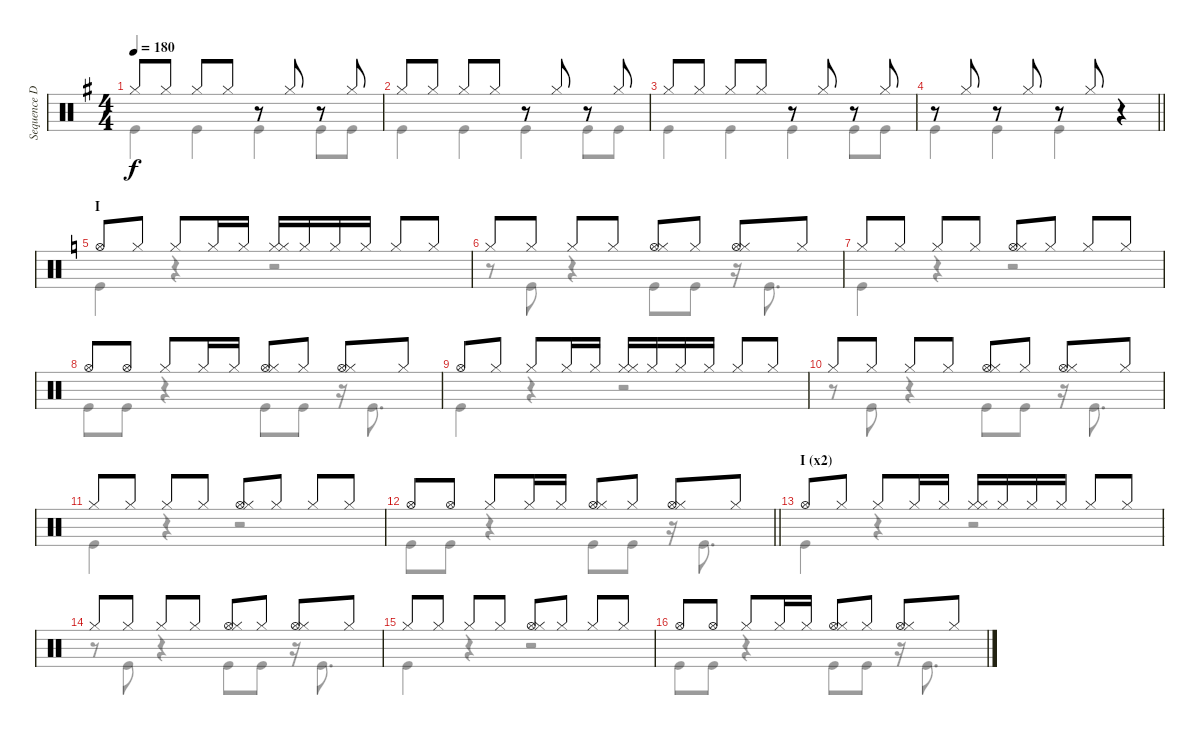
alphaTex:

\track ("Sequence Drums" "Sequence D") {instrument percussion}
\staff {score}
\articulation defaults
\voice
\ts (4 4)
\tempo 180
\clef neutral
\ks g "Hi-Hat (closed)".8{dy f} "Hi-Hat (closed)".8 "Hi-Hat (closed)".8 "Hi-Hat (closed)".8
r.8 "Hi-Hat (closed)".8 r.8 "Hi-Hat (closed)".8 |
"Hi-Hat (closed)".8 "Hi-Hat (closed)".8 "Hi-Hat (closed)".8 "Hi-Hat (closed)".8 r.8 "Hi-Hat (closed)".8 r.8 "Hi-Hat (closed)".8 |
"Hi-Hat (closed)".8 "Hi-Hat (closed)".8 "Hi-Hat (closed)".8 "Hi-Hat (closed)".8 r.8 "Hi-Hat (closed)".8 r.8 "Hi-Hat (closed)".8 |
\barLineRight lightlight
r.8 "Hi-Hat (closed)".8 r.8 "Hi-Hat (closed)".8 r.8 "Hi-Hat (closed)".8 r.4 |
\section ("" "I")
\ks c "Hi-Hat (open)".8 "Hi-Hat (closed)".8 "Hi-Hat (closed)".8 "Hi-Hat (closed)".16 "Hi-Hat (closed)".16
("Hi-Hat (closed)" "Hi-Hat (closed)").16 "Hi-Hat (closed)".16 "Hi-Hat (closed)".16 "Hi-Hat (closed)".16 "Hi-Hat (closed)".8 "Hi-Hat (closed)".8 |
"Hi-Hat (closed)".8 "Hi-Hat (closed)".8 "Hi-Hat (closed)".8 "Hi-Hat (closed)".8 ("Hi-Hat (open)" "Hi-Hat (closed)").8 "Hi-Hat (closed)".8 ("Hi-Hat (open)" "Hi-Hat (closed)").8 "Hi-Hat (closed)".8 |
"Hi-Hat (closed)".8 "Hi-Hat (closed)".8 "Hi-Hat (closed)".8 "Hi-Hat (closed)".8 ("Hi-Hat (open)" "Hi-Hat (closed)").8 "Hi-Hat (closed)".8 "Hi-Hat (closed)".8 "Hi-Hat (closed)".8 |
"Hi-Hat (open)".8 "Hi-Hat (open)".8 "Hi-Hat (closed)".8 "Hi-Hat (closed)".16 "Hi-Hat (closed)".16 ("Hi-Hat (open)" "Hi-Hat (closed)").8 "Hi-Hat (closed)".8 ("Hi-Hat (open)" "Hi-Hat (closed)").8 "Hi-Hat (closed)".8 |
"Hi-Hat (open)".8 "Hi-Hat (closed)".8 "Hi-Hat (closed)".8 "Hi-Hat (closed)".16 "Hi-Hat (closed)".16 ("Hi-Hat (closed)" "Hi-Hat (closed)").16 "Hi-Hat (closed)".16 "Hi-Hat (closed)".16 "Hi-Hat (closed)".16 "Hi-Hat (closed)".8 "Hi-Hat (closed)".8 |
"Hi-Hat (closed)".8 "Hi-Hat (closed)".8 "Hi-Hat (closed)".8 "Hi-Hat (closed)".8 ("Hi-Hat (open)" "Hi-Hat (closed)").8 "Hi-Hat (closed)".8 ("Hi-Hat (open)" "Hi-Hat (closed)").8 "Hi-Hat (closed)".8 |
"Hi-Hat (closed)".8 "Hi-Hat (closed)".8 "Hi-Hat (closed)".8 "Hi-Hat (closed)".8 ("Hi-Hat (open)" "Hi-Hat (closed)").8 "Hi-Hat (closed)".8 "Hi-Hat (closed)".8 "Hi-Hat (closed)".8 |
\barLineRight lightlight "Hi-Hat (open)".8 "Hi-Hat (open)".8 "Hi-Hat (closed)".8 "Hi-Hat (closed)".16 "Hi-Hat (closed)".16
("Hi-Hat (open)" "Hi-Hat (closed)").8 "Hi-Hat (closed)".8 ("Hi-Hat (open)" "Hi-Hat (closed)").8 "Hi-Hat (closed)".8 |
\section ("" "I (x2)")
"Hi-Hat (open)".8 "Hi-Hat (closed)".8 "Hi-Hat (closed)".8 "Hi-Hat (closed)".16 "Hi-Hat (closed)".16 ("Hi-Hat (closed)" "Hi-Hat (closed)").16 "Hi-Hat (closed)".16 "Hi-Hat (closed)".16 "Hi-Hat (closed)".16 "Hi-Hat (closed)".8 "Hi-Hat (closed)".8 |
"Hi-Hat (closed)".8 "Hi-Hat (closed)".8 "Hi-Hat (closed)".8 "Hi-Hat (closed)".8 ("Hi-Hat (open)" "Hi-Hat (closed)").8 "Hi-Hat (closed)".8 ("Hi-Hat (open)" "Hi-Hat (closed)").8 "Hi-Hat (closed)".8 |
"Hi-Hat (closed)".8 "Hi-Hat (closed)".8 "Hi-Hat (closed)".8 "Hi-Hat (closed)".8 ("Hi-Hat (open)" "Hi-Hat (closed)").8 "Hi-Hat (closed)".8 "Hi-Hat (closed)".8 "Hi-Hat (closed)".8 |
"Hi-Hat (open)".8 "Hi-Hat (open)".8 "Hi-Hat (closed)".8 "Hi-Hat (closed)".16 "Hi-Hat (closed)".16 ("Hi-Hat (open)" "Hi-Hat (closed)").8 "Hi-Hat (closed)".8 ("Hi-Hat (open)" "Hi-Hat (closed)").8 "Hi-Hat (closed)".8
\voice
\clef neutral
\ottava regular
\simile none
\ks g "Kick (hit)".4{dy f} "Kick (hit)".4 "Kick (hit)".4 "Kick (hit)".8 "Kick (hit)".8
|
"Kick (hit)".4 "Kick (hit)".4 "Kick (hit)".4 "Kick (hit)".8 "Kick (hit)".8 |
"Kick (hit)".4 "Kick (hit)".4 "Kick (hit)".4 "Kick (hit)".8 "Kick (hit)".8 |
\barLineRight lightlight "Kick (hit)".4 "Kick (hit)".4 "Kick (hit)".4
r.4 |
\ks c "Kick (hit)".4
r.4 r.2 |
r.8 "Kick (hit)".8 r.4 "Kick (hit)".8 "Kick (hit)".8 r.16 "Kick (hit)".8{d} |
"Kick (hit)".4 r.4 r.2 |
"Kick (hit)".8 "Kick (hit)".8 r.4 "Kick (hit)".8 "Kick (hit)".8 r.16 "Kick (hit)".8{d} |
"Kick (hit)".4 r.4 r.2 |
r.8 "Kick (hit)".8 r.4 "Kick (hit)".8 "Kick (hit)".8 r.16 "Kick (hit)".8{d} |
"Kick (hit)".4 r.4 r.2 |
\barLineRight lightlight "Kick (hit)".8 "Kick (hit)".8
r.4 "Kick (hit)".8 "Kick (hit)".8 r.16 "Kick (hit)".8{d} |
"Kick (hit)".4 r.4 r.2 |
r.8 "Kick (hit)".8 r.4 "Kick (hit)".8 "Kick (hit)".8 r.16 "Kick (hit)".8{d} |
"Kick (hit)".4 r.4 r.2 |
"Kick (hit)".8 "Kick (hit)".8 r.4 "Kick (hit)".8 "Kick (hit)".8 r.16 "Kick (hit)".8{d}
